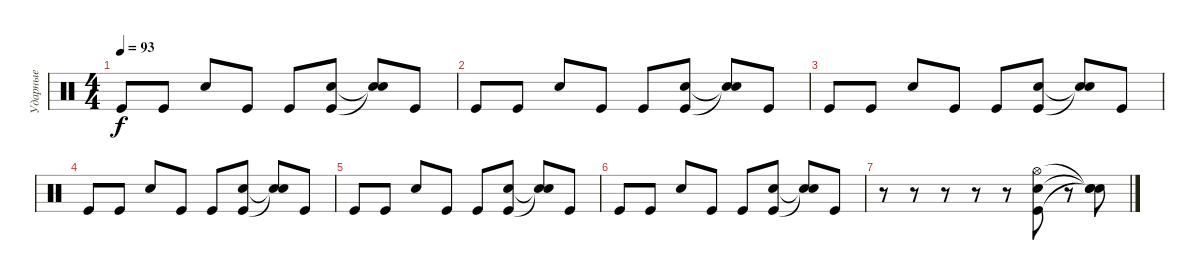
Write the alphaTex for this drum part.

\track ("Ударные" "Ударные") {instrument percussion}
\staff {score}
\articulation defaults
\ts (4 4)
\tempo 93
\clef neutral
\ks c "Kick (hit)".8{dy f} "Kick (hit)".8 "Snare (hit) 2".8 "Kick (hit)".8 "Kick (hit)".8
("Kick (hit)" "Snare (hit) 2").8 ("Snare (hit) 2"{t} "Snare (hit)"{t}).8 "Kick (hit)".8 |
"Kick (hit)".8 "Kick (hit)".8 "Snare (hit) 2".8 "Kick (hit)".8 "Kick (hit)".8 ("Kick (hit)" "Snare (hit) 2").8 ("Snare (hit) 2"{t} "Snare (hit)"{t}).8 "Kick (hit)".8 |
"Kick (hit)".8 "Kick (hit)".8 "Snare (hit) 2".8 "Kick (hit)".8 "Kick (hit)".8 ("Kick (hit)" "Snare (hit) 2").8 ("Snare (hit) 2"{t} "Snare (hit)"{t}).8 "Kick (hit)".8 |
"Kick (hit)".8 "Kick (hit)".8 "Snare (hit) 2".8 "Kick (hit)".8 "Kick (hit)".8 ("Kick (hit)" "Snare (hit) 2").8 ("Snare (hit) 2"{t} "Snare (hit)"{t}).8 "Kick (hit)".8 |
"Kick (hit)".8 "Kick (hit)".8 "Snare (hit) 2".8 "Kick (hit)".8 "Kick (hit)".8 ("Kick (hit)" "Snare (hit) 2").8 ("Snare (hit) 2"{t} "Snare (hit)"{t}).8 "Kick (hit)".8 |
"Kick (hit)".8 "Kick (hit)".8 "Snare (hit) 2".8 "Kick (hit)".8 "Kick (hit)".8 ("Kick (hit)" "Snare (hit) 2").8 ("Snare (hit) 2"{t} "Snare (hit)"{t}).8 "Kick (hit)".8 |
r.8 r.8 r.8 r.8 r.8 ("Snare (hit) 2" "Kick (hit)" "Hi-Hat (open)").8 r.8 ("Snare (hit)"{t} "Snare (hit)"{t} "Snare (hit)"{t}).8
